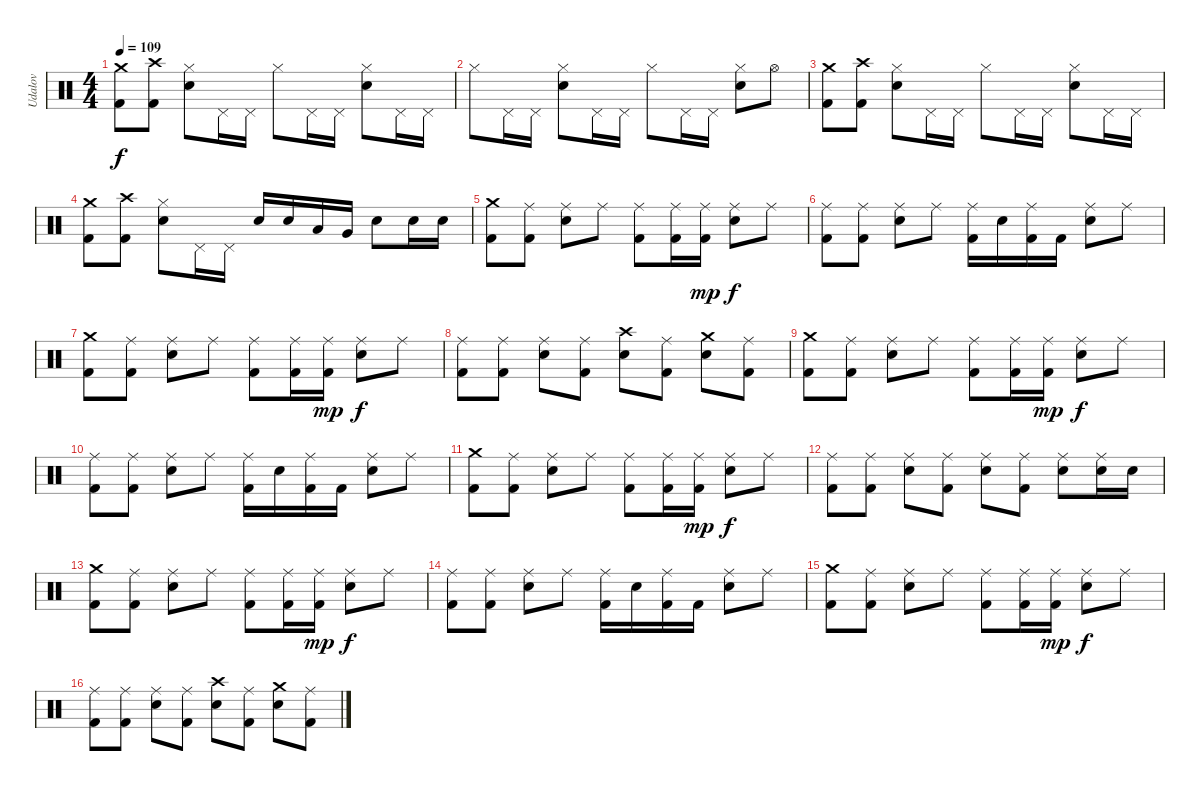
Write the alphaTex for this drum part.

\track ("Udalov" "Udalov") {instrument percussion}
\staff {score}
\articulation defaults
\ts (4 4)
\tempo 109
\clef neutral
\ks c
("Crash medium (hit)" "Kick (hit) 2").8{dy f} ("Crash high (hit)" "Kick (hit) 2").8 ("Hi-Hat (closed)" "Snare (hit) 2").8 "Pedal Hi-Hat (hit)".16 "Pedal Hi-Hat (hit)".16 "Hi-Hat (closed)".8 "Pedal Hi-Hat (hit)".16 "Pedal Hi-Hat (hit)".16 ("Snare (hit) 2" "Hi-Hat (closed)").8 "Pedal Hi-Hat (hit)".16 "Pedal Hi-Hat (hit)".16 |
"Hi-Hat (closed)".8 "Pedal Hi-Hat (hit)".16 "Pedal Hi-Hat (hit)".16 ("Snare (hit) 2" "Hi-Hat (closed)").8 "Pedal Hi-Hat (hit)".16 "Pedal Hi-Hat (hit)".16 "Hi-Hat (closed)".8 "Pedal Hi-Hat (hit)".16 "Pedal Hi-Hat (hit)".16 ("Snare (hit) 2" "Hi-Hat (closed)").8 "Hi-Hat (open)".8 |
("Crash medium (hit)" "Kick (hit) 2").8 ("Crash high (hit)" "Kick (hit) 2").8 ("Hi-Hat (closed)" "Snare (hit) 2").8 "Pedal Hi-Hat (hit)".16 "Pedal Hi-Hat (hit)".16 "Hi-Hat (closed)".8 "Pedal Hi-Hat (hit)".16 "Pedal Hi-Hat (hit)".16 ("Snare (hit) 2" "Hi-Hat (closed)").8 "Pedal Hi-Hat (hit)".16 "Pedal Hi-Hat (hit)".16 |
("Kick (hit) 2" "Crash medium (hit)").8 ("Kick (hit) 2" "Crash high (hit)").8 ("Hi-Hat (closed)" "Snare (hit) 2").8 "Pedal Hi-Hat (hit)".16 "Pedal Hi-Hat (hit)".16 "Snare (hit) 2".16 "Snare (hit) 2".16 "Low Tom (hit)".16 "Very Low Tom (hit)".16 "Snare (hit) 2".8 "Snare (hit) 2".16 "Snare (hit) 2".16 |
("Kick (hit) 2" "Crash medium (hit)").8 ("Kick (hit) 2" "Ride (middle)").8 ("Snare (hit) 2" "Ride (middle)").8 "Ride (middle)".8 ("Kick (hit) 2" "Ride (middle)").8 ("Kick (hit) 2" "Ride (middle)").16 ("Ride (middle)" "Kick (hit) 2").16{dy mp} ("Snare (hit) 2" "Ride (middle)").8{dy f} "Ride (middle)".8 |
("Kick (hit) 2" "Ride (middle)").8 ("Kick (hit) 2" "Ride (middle)").8 ("Snare (hit) 2" "Ride (middle)").8 "Ride (middle)".8 ("Kick (hit) 2" "Ride (middle)").16 "Snare (hit) 2".16 ("Ride (middle)" "Kick (hit) 2").16 "Kick (hit) 2".16 ("Snare (hit) 2" "Ride (middle)").8 "Ride (middle)".8 |
("Kick (hit) 2" "Crash medium (hit)").8 ("Ride (middle)" "Kick (hit) 2").8 ("Ride (middle)" "Snare (hit) 2").8 "Ride (middle)".8 ("Ride (middle)" "Kick (hit) 2").8 ("Ride (middle)" "Kick (hit) 2").16 ("Ride (middle)" "Kick (hit) 2").16{dy mp} ("Ride (middle)" "Snare (hit) 2").8{dy f} "Ride (middle)".8 |
("Ride (middle)" "Kick (hit) 2").8 ("Ride (middle)" "Kick (hit) 2").8 ("Ride (middle)" "Snare (hit) 2").8 ("Kick (hit) 2" "Ride (middle)").8 ("Snare (hit) 2" "Crash high (hit)").8 ("Kick (hit) 2" "Ride (middle)").8 ("Snare (hit) 2" "Crash medium (hit)").8 ("Kick (hit) 2" "Ride (middle)").8 |
("Kick (hit) 2" "Crash medium (hit)").8 ("Kick (hit) 2" "Ride (middle)").8 ("Snare (hit) 2" "Ride (middle)").8 "Ride (middle)".8 ("Kick (hit) 2" "Ride (middle)").8 ("Kick (hit) 2" "Ride (middle)").16 ("Ride (middle)" "Kick (hit) 2").16{dy mp} ("Snare (hit) 2" "Ride (middle)").8{dy f} "Ride (middle)".8 |
("Kick (hit) 2" "Ride (middle)").8 ("Kick (hit) 2" "Ride (middle)").8 ("Snare (hit) 2" "Ride (middle)").8 "Ride (middle)".8 ("Kick (hit) 2" "Ride (middle)").16 "Snare (hit) 2".16 ("Ride (middle)" "Kick (hit) 2").16 "Kick (hit) 2".16 ("Snare (hit) 2" "Ride (middle)").8 "Ride (middle)".8 |
("Kick (hit) 2" "Crash medium (hit)").8 ("Ride (middle)" "Kick (hit) 2").8 ("Ride (middle)" "Snare (hit) 2").8 "Ride (middle)".8 ("Ride (middle)" "Kick (hit) 2").8 ("Ride (middle)" "Kick (hit) 2").16 ("Ride (middle)" "Kick (hit) 2").16{dy mp} ("Ride (middle)" "Snare (hit) 2").8{dy f} "Ride (middle)".8 |
("Ride (middle)" "Kick (hit) 2").8 ("Ride (middle)" "Kick (hit) 2").8 ("Ride (middle)" "Snare (hit) 2").8 ("Kick (hit) 2" "Ride (middle)").8 ("Snare (hit) 2" "Ride (middle)").8 ("Kick (hit) 2" "Ride (middle)").8 ("Snare (hit) 2" "Ride (middle)").8 ("Snare (hit) 2" "Ride (middle)").16 "Snare (hit) 2".16 |
("Kick (hit) 2" "Crash medium (hit)").8 ("Kick (hit) 2" "Ride (middle)").8 ("Snare (hit) 2" "Ride (middle)").8 "Ride (middle)".8 ("Kick (hit) 2" "Ride (middle)").8 ("Kick (hit) 2" "Ride (middle)").16 ("Ride (middle)" "Kick (hit) 2").16{dy mp} ("Snare (hit) 2" "Ride (middle)").8{dy f} "Ride (middle)".8 |
("Kick (hit) 2" "Ride (middle)").8 ("Kick (hit) 2" "Ride (middle)").8 ("Snare (hit) 2" "Ride (middle)").8 "Ride (middle)".8 ("Kick (hit) 2" "Ride (middle)").16 "Snare (hit) 2".16 ("Ride (middle)" "Kick (hit) 2").16 "Kick (hit) 2".16 ("Snare (hit) 2" "Ride (middle)").8 "Ride (middle)".8 |
("Kick (hit) 2" "Crash medium (hit)").8 ("Ride (middle)" "Kick (hit) 2").8 ("Ride (middle)" "Snare (hit) 2").8 "Ride (middle)".8 ("Ride (middle)" "Kick (hit) 2").8 ("Ride (middle)" "Kick (hit) 2").16 ("Ride (middle)" "Kick (hit) 2").16{dy mp} ("Ride (middle)" "Snare (hit) 2").8{dy f} "Ride (middle)".8 |
("Ride (middle)" "Kick (hit) 2").8 ("Ride (middle)" "Kick (hit) 2").8 ("Ride (middle)" "Snare (hit) 2").8 ("Kick (hit) 2" "Ride (middle)").8 ("Snare (hit) 2" "Crash high (hit)").8 ("Kick (hit) 2" "Ride (middle)").8 ("Snare (hit) 2" "Crash medium (hit)").8 ("Kick (hit) 2" "Ride (middle)").8
